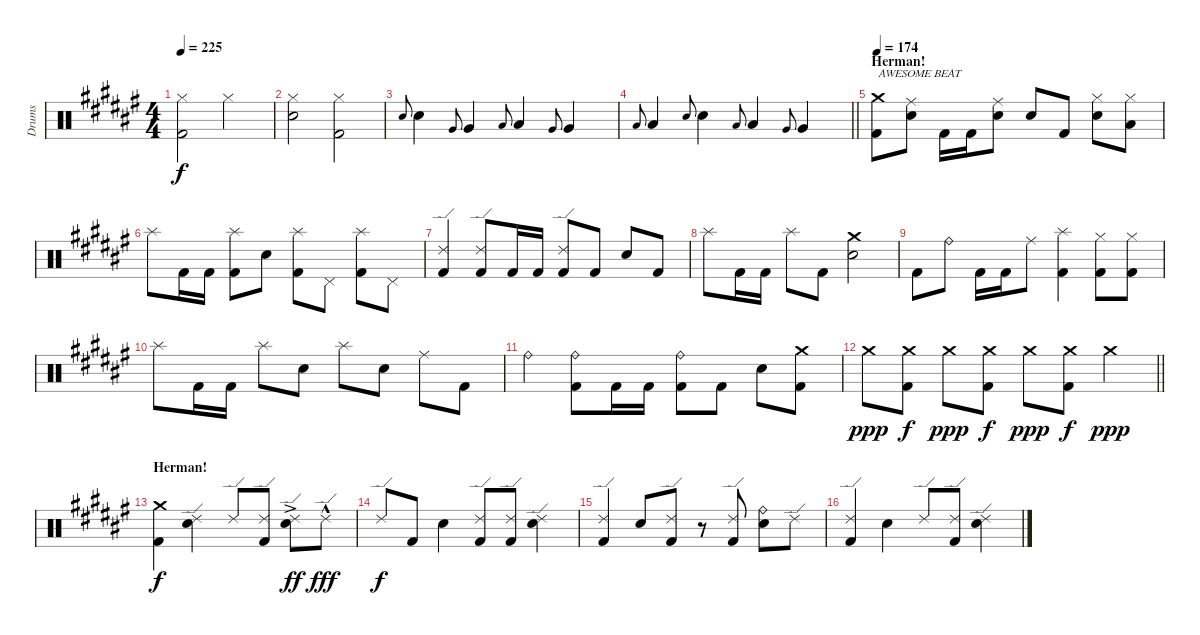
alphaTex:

\track ("Drums" "Drums") {instrument percussion}
\staff {score}
\articulation defaults
\ts (4 4)
\tempo 225
\clef neutral
\ks f#
("Hi-Hat (closed)" "Kick (hit) 2").2{dy f} "Hi-Hat (closed)".2 |
("Hi-Hat (closed)" "Snare (hit) 2").2 ("Hi-Hat (closed)" "Kick (hit) 2").2 |
"Snare (hit) 2".8{gr onbeat} "Snare (hit) 2".4 "Very Low Tom (hit)".8{gr onbeat} "Very Low Tom (hit)".4 "Low Tom (hit)".8{gr onbeat} "Low Tom (hit)".4 "Very Low Tom (hit)".8{gr onbeat} "Very Low Tom (hit)".4 |
\barLineRight lightlight "Low Tom (hit)".8{gr onbeat} "Low Tom (hit)".4 "Snare (hit) 2".8{gr onbeat} "Snare (hit) 2".4 "Low Tom (hit)".8{gr onbeat} "Low Tom (hit)".4 "Very Low Tom (hit)".8{gr onbeat} "Very Low Tom (hit)".4
|
\section ("" "Herman!")
\tempo 174
("Crash medium (hit)" "Kick (hit) 2").8{txt "AWESOME BEAT"} ("Ride (middle)" "Snare (hit) 2").8 "Kick (hit) 2".16 "Kick (hit) 2".16 ("Ride (middle)" "Snare (hit) 2").8 "Snare (hit) 2".8 "Kick (hit) 2".8 ("Hi-Hat (closed)" "Snare (hit) 2").8 ("Hi-Hat (closed)" "Low Floor Tom (hit)").8 |
"Splash (hit)".8 "Kick (hit) 2".16 "Kick (hit) 2".16 ("Splash (hit)" "Kick (hit) 2").8 "Snare (hit) 2".8 ("Splash (hit)" "Kick (hit) 2").8 "Pedal Hi-Hat (hit)".8 ("Splash (hit)" "Kick (hit) 2").8 "Pedal Hi-Hat (hit)".8 |
("Ride (edge) 2" "Kick (hit) 2").4 ("Ride (edge) 2" "Kick (hit) 2").8 "Kick (hit) 2".16 "Kick (hit) 2".16 ("Ride (edge) 2" "Kick (hit) 2").8 "Kick (hit) 2".8 "Snare (hit) 2".8 "Kick (hit) 2".8 |
"Splash (hit)".8 "Kick (hit) 2".16 "Kick (hit) 2".16 "Splash (hit)".8 "Kick (hit) 2".8 ("Crash medium (hit)" "Snare (hit) 2").2 |
"Kick (hit) 2".8 "Ride (bell)".8 "Kick (hit) 2".16 "Kick (hit) 2".16 "Ride (middle)".8 ("Splash (hit)" "Kick (hit) 2").4 ("Hi-Hat (closed)" "Kick (hit) 2").8 ("Hi-Hat (closed)" "Kick (hit) 2").8 |
"Splash (hit)".8 "Kick (hit) 2".16 "Kick (hit) 2".16 "Splash (hit)".8 "Snare (hit) 2".8 "Splash (hit)".8 "Snare (hit) 2".8 "Ride (middle)".8 "Kick (hit) 2".8 |
"Ride (bell)".4 ("Ride (bell)" "Kick (hit) 2").8 "Kick (hit) 2".16 "Kick (hit) 2".16 ("Ride (bell)" "Kick (hit) 2").8 "Kick (hit) 2".8 "Snare (hit) 2".8 ("Crash medium (hit)" "Kick (hit) 2").8 |
\barLineRight lightlight "Crash medium (hit)".8{dy ppp}
("Crash medium (hit)" "Kick (hit) 2").8{dy f} "Crash medium (hit)".8{dy ppp} ("Crash medium (hit)" "Kick (hit) 2").8{dy f} "Crash medium (hit)".8{dy ppp} ("Crash medium (hit)" "Kick (hit) 2").8{dy f} "Crash medium (hit)".4{dy ppp} |
\section ("" "Herman!")
("Crash medium (hit)" "Kick (hit) 2").4{dy f} ("Ride (edge) 2" "Snare (hit) 2").4 "Ride (edge) 2".8 ("Ride (edge) 2" "Kick (hit) 2").8 ("Ride (edge) 2"{ac} "Snare (hit) 2").8{dy ff} "Ride (edge) 2"{hac}.8{dy fff} |
"Ride (edge) 2".8{dy f} "Kick (hit) 2".8 "Snare (hit) 2".4 ("Ride (edge) 2" "Kick (hit) 2").8 ("Ride (edge) 2" "Kick (hit) 2").8 ("Ride (edge) 2" "Snare (hit) 2").4 |
("Ride (edge) 2" "Kick (hit) 2").4 "Snare (hit) 2".8 ("Ride (edge) 2" "Kick (hit) 2").8 r.8 ("Ride (edge) 2" "Kick (hit) 2").8 ("Ride (bell)" "Snare (hit) 2").8 "Ride (edge) 2".8 |
("Ride (edge) 2" "Kick (hit) 2").4 "Snare (hit) 2".4 "Ride (edge) 2".8 ("Ride (edge) 2" "Kick (hit) 2").8 ("Ride (edge) 2" "Snare (hit) 2").4
